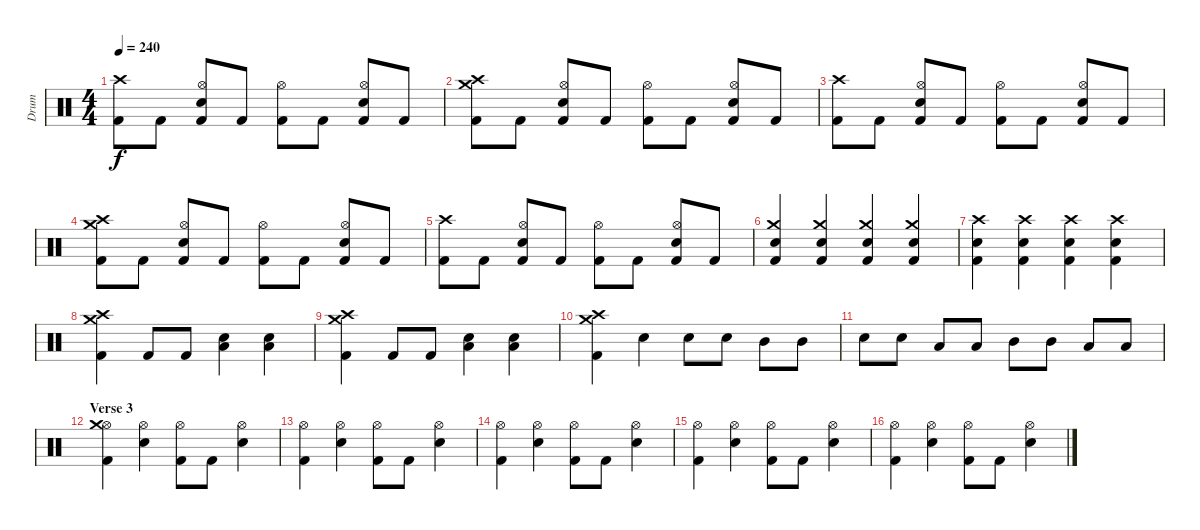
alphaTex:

\track ("Drum" "Drum") {instrument percussion}
\staff {score}
\articulation defaults
\ts (4 4)
\tempo 240
\clef neutral
\ks c
("Crash high (hit)" "Kick (hit) 2").8{dy f} "Kick (hit) 2".8 ("Hi-Hat (open)" "Kick (hit) 2" "Electric Snare (hit)").8 "Kick (hit) 2".8 ("Hi-Hat (open)" "Kick (hit) 2").8 "Kick (hit) 2".8 ("Hi-Hat (open)" "Kick (hit) 2" "Electric Snare (hit)").8 "Kick (hit) 2".8 |
("Crash high (hit)" "Kick (hit) 2" "Crash medium (hit)").8 "Kick (hit) 2".8 ("Hi-Hat (open)" "Kick (hit) 2" "Electric Snare (hit)").8 "Kick (hit) 2".8 ("Hi-Hat (open)" "Kick (hit) 2").8 "Kick (hit) 2".8 ("Hi-Hat (open)" "Kick (hit) 2" "Electric Snare (hit)").8 "Kick (hit) 2".8 |
("Crash high (hit)" "Kick (hit) 2").8 "Kick (hit) 2".8 ("Hi-Hat (open)" "Kick (hit) 2" "Electric Snare (hit)").8 "Kick (hit) 2".8 ("Hi-Hat (open)" "Kick (hit) 2").8 "Kick (hit) 2".8 ("Hi-Hat (open)" "Kick (hit) 2" "Electric Snare (hit)").8 "Kick (hit) 2".8 |
("Crash high (hit)" "Kick (hit) 2" "Crash medium (hit)").8 "Kick (hit) 2".8 ("Hi-Hat (open)" "Kick (hit) 2" "Electric Snare (hit)").8 "Kick (hit) 2".8 ("Hi-Hat (open)" "Kick (hit) 2").8 "Kick (hit) 2".8 ("Hi-Hat (open)" "Kick (hit) 2" "Electric Snare (hit)").8 "Kick (hit) 2".8 |
("Crash high (hit)" "Kick (hit) 2").8 "Kick (hit) 2".8 ("Hi-Hat (open)" "Kick (hit) 2" "Electric Snare (hit)").8 "Kick (hit) 2".8 ("Hi-Hat (open)" "Kick (hit) 2").8 "Kick (hit) 2".8 ("Hi-Hat (open)" "Kick (hit) 2" "Electric Snare (hit)").8 "Kick (hit) 2".8 |
("Snare (hit) 2" "Kick (hit) 2" "Crash medium (hit)").4 ("Snare (hit) 2" "Kick (hit) 2" "Crash medium (hit)").4 ("Snare (hit) 2" "Kick (hit) 2" "Crash medium (hit)").4 ("Snare (hit) 2" "Kick (hit) 2" "Crash medium (hit)").4 |
("Crash high (hit)" "Kick (hit) 2" "Electric Snare (hit)").4 ("Crash high (hit)" "Kick (hit) 2" "Electric Snare (hit)").4 ("Crash high (hit)" "Kick (hit) 2" "Electric Snare (hit)").4 ("Crash high (hit)" "Kick (hit) 2" "Electric Snare (hit)").4 |
("Crash high (hit)" "Kick (hit) 2" "Crash medium (hit)").4 "Kick (hit) 2".8 "Kick (hit) 2".8 ("Low Floor Tom (hit)" "Electric Snare (hit)").4 ("Low Floor Tom (hit)" "Electric Snare (hit)").4 |
("Crash high (hit)" "Kick (hit) 2" "Crash medium (hit)").4 "Kick (hit) 2".8 "Kick (hit) 2".8 ("Low Floor Tom (hit)" "Electric Snare (hit)").4 ("Low Floor Tom (hit)" "Electric Snare (hit)").4 |
("Crash high (hit)" "Kick (hit) 2" "Crash medium (hit)").4 "Electric Snare (hit)".4 "Electric Snare (hit)".8 "Electric Snare (hit)".8 "Mid Tom (hit)".8 "Mid Tom (hit)".8 |
"Electric Snare (hit)".8 "Electric Snare (hit)".8 "Low Tom (hit)".8 "Low Tom (hit)".8 "Mid Tom (hit)".8 "Mid Tom (hit)".8 "Low Floor Tom (hit)".8 "Low Floor Tom (hit)".8 |
\section ("" "Verse 3")
("Hi-Hat (open)" "Kick (hit) 2" "Crash medium (hit)").4 ("Hi-Hat (open)" "Electric Snare (hit)").4 ("Hi-Hat (open)" "Kick (hit) 2").8 "Kick (hit) 2".8 ("Hi-Hat (open)" "Electric Snare (hit)").4 |
("Hi-Hat (open)" "Kick (hit) 2").4 ("Hi-Hat (open)" "Electric Snare (hit)").4 ("Hi-Hat (open)" "Kick (hit) 2").8 "Kick (hit) 2".8 ("Hi-Hat (open)" "Electric Snare (hit)").4 |
("Hi-Hat (open)" "Kick (hit) 2").4 ("Hi-Hat (open)" "Electric Snare (hit)").4 ("Hi-Hat (open)" "Kick (hit) 2").8 "Kick (hit) 2".8 ("Hi-Hat (open)" "Electric Snare (hit)").4 |
("Hi-Hat (open)" "Kick (hit) 2").4 ("Hi-Hat (open)" "Electric Snare (hit)").4 ("Hi-Hat (open)" "Kick (hit) 2").8 "Kick (hit) 2".8 ("Hi-Hat (open)" "Electric Snare (hit)").4 |
("Hi-Hat (open)" "Kick (hit) 2").4 ("Hi-Hat (open)" "Electric Snare (hit)").4 ("Hi-Hat (open)" "Kick (hit) 2").8 "Kick (hit) 2".8 ("Hi-Hat (open)" "Electric Snare (hit)").4
